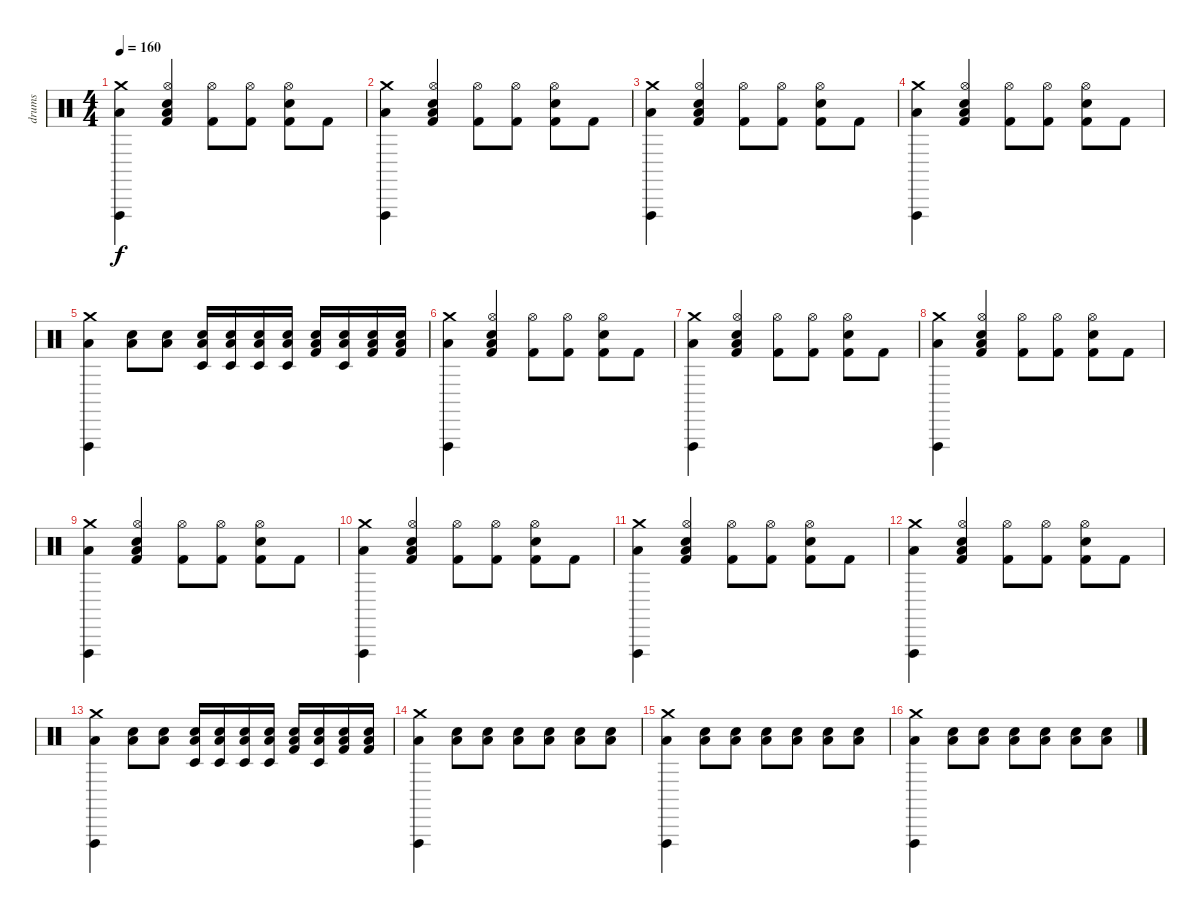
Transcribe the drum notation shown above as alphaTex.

\track ("drums" "drums") {instrument percussion}
\staff {score}
\articulation defaults
\ts (4 4)
\tempo 160
\clef neutral
\ks c
("Crash medium (hit)" "Vibraslap (hit)" "Low Floor Tom (hit)").4{dy f} ("Hi-Hat (open)" "Electric Snare (hit)" "Low Floor Tom (hit)" "Kick (hit) 2").4 ("Hi-Hat (open)" "Kick (hit) 2").8 ("Hi-Hat (open)" "Kick (hit) 2").8 ("Hi-Hat (open)" "Electric Snare (hit)" "Kick (hit) 2").8 "Kick (hit) 2".8 |
("Crash medium (hit)" "Vibraslap (hit)" "Low Floor Tom (hit)").4 ("Hi-Hat (open)" "Electric Snare (hit)" "Low Floor Tom (hit)" "Kick (hit) 2").4 ("Hi-Hat (open)" "Kick (hit) 2").8 ("Hi-Hat (open)" "Kick (hit) 2").8 ("Hi-Hat (open)" "Electric Snare (hit)" "Kick (hit) 2").8 "Kick (hit) 2".8 |
("Crash medium (hit)" "Vibraslap (hit)" "Low Floor Tom (hit)").4 ("Hi-Hat (open)" "Electric Snare (hit)" "Low Floor Tom (hit)" "Kick (hit) 2").4 ("Hi-Hat (open)" "Kick (hit) 2").8 ("Hi-Hat (open)" "Kick (hit) 2").8 ("Hi-Hat (open)" "Electric Snare (hit)" "Kick (hit) 2").8 "Kick (hit) 2".8 |
("Crash medium (hit)" "Vibraslap (hit)" "Low Floor Tom (hit)").4 ("Hi-Hat (open)" "Electric Snare (hit)" "Low Floor Tom (hit)" "Kick (hit) 2").4 ("Hi-Hat (open)" "Kick (hit) 2").8 ("Hi-Hat (open)" "Kick (hit) 2").8 ("Hi-Hat (open)" "Electric Snare (hit)" "Kick (hit) 2").8 "Kick (hit) 2".8 |
("Crash medium (hit)" "Vibraslap (hit)" "Low Floor Tom (hit)").4 ("Electric Snare (hit)" "Low Floor Tom (hit)").8 ("Electric Snare (hit)" "Low Floor Tom (hit)").8 ("Electric Snare (hit)" "Low Floor Tom (hit)" "Timbale low (hit)").16 ("Electric Snare (hit)" "Low Floor Tom (hit)" "Timbale low (hit)").16 ("Electric Snare (hit)" "Low Floor Tom (hit)" "Timbale low (hit)").16 ("Electric Snare (hit)" "Low Floor Tom (hit)" "Timbale low (hit)").16 ("Electric Snare (hit)" "Low Floor Tom (hit)" "Kick (hit) 2").16 ("Electric Snare (hit)" "Low Floor Tom (hit)" "Timbale low (hit)").16 ("Electric Snare (hit)" "Low Floor Tom (hit)" "Kick (hit) 2").16 ("Electric Snare (hit)" "Low Floor Tom (hit)" "Kick (hit) 2").16 |
("Crash medium (hit)" "Vibraslap (hit)" "Low Floor Tom (hit)").4 ("Hi-Hat (open)" "Electric Snare (hit)" "Low Floor Tom (hit)" "Kick (hit) 2").4 ("Hi-Hat (open)" "Kick (hit) 2").8 ("Hi-Hat (open)" "Kick (hit) 2").8 ("Hi-Hat (open)" "Electric Snare (hit)" "Kick (hit) 2").8 "Kick (hit) 2".8 |
("Crash medium (hit)" "Vibraslap (hit)" "Low Floor Tom (hit)").4 ("Hi-Hat (open)" "Electric Snare (hit)" "Low Floor Tom (hit)" "Kick (hit) 2").4 ("Hi-Hat (open)" "Kick (hit) 2").8 ("Hi-Hat (open)" "Kick (hit) 2").8 ("Hi-Hat (open)" "Electric Snare (hit)" "Kick (hit) 2").8 "Kick (hit) 2".8 |
("Crash medium (hit)" "Vibraslap (hit)" "Low Floor Tom (hit)").4 ("Hi-Hat (open)" "Electric Snare (hit)" "Low Floor Tom (hit)" "Kick (hit) 2").4 ("Hi-Hat (open)" "Kick (hit) 2").8 ("Hi-Hat (open)" "Kick (hit) 2").8 ("Hi-Hat (open)" "Electric Snare (hit)" "Kick (hit) 2").8 "Kick (hit) 2".8 |
("Crash medium (hit)" "Vibraslap (hit)" "Low Floor Tom (hit)").4 ("Hi-Hat (open)" "Electric Snare (hit)" "Low Floor Tom (hit)" "Kick (hit) 2").4 ("Hi-Hat (open)" "Kick (hit) 2").8 ("Hi-Hat (open)" "Kick (hit) 2").8 ("Hi-Hat (open)" "Electric Snare (hit)" "Kick (hit) 2").8 "Kick (hit) 2".8 |
("Crash medium (hit)" "Vibraslap (hit)" "Low Floor Tom (hit)").4 ("Hi-Hat (open)" "Electric Snare (hit)" "Low Floor Tom (hit)" "Kick (hit) 2").4 ("Hi-Hat (open)" "Kick (hit) 2").8 ("Hi-Hat (open)" "Kick (hit) 2").8 ("Hi-Hat (open)" "Electric Snare (hit)" "Kick (hit) 2").8 "Kick (hit) 2".8 |
("Crash medium (hit)" "Vibraslap (hit)" "Low Floor Tom (hit)").4 ("Hi-Hat (open)" "Electric Snare (hit)" "Low Floor Tom (hit)" "Kick (hit) 2").4 ("Hi-Hat (open)" "Kick (hit) 2").8 ("Hi-Hat (open)" "Kick (hit) 2").8 ("Hi-Hat (open)" "Electric Snare (hit)" "Kick (hit) 2").8 "Kick (hit) 2".8 |
("Crash medium (hit)" "Vibraslap (hit)" "Low Floor Tom (hit)").4 ("Hi-Hat (open)" "Electric Snare (hit)" "Low Floor Tom (hit)" "Kick (hit) 2").4 ("Hi-Hat (open)" "Kick (hit) 2").8 ("Hi-Hat (open)" "Kick (hit) 2").8 ("Hi-Hat (open)" "Electric Snare (hit)" "Kick (hit) 2").8 "Kick (hit) 2".8 |
("Crash medium (hit)" "Vibraslap (hit)" "Low Floor Tom (hit)").4 ("Electric Snare (hit)" "Low Floor Tom (hit)").8 ("Electric Snare (hit)" "Low Floor Tom (hit)").8 ("Electric Snare (hit)" "Low Floor Tom (hit)" "Timbale low (hit)").16 ("Electric Snare (hit)" "Low Floor Tom (hit)" "Timbale low (hit)").16 ("Electric Snare (hit)" "Low Floor Tom (hit)" "Timbale low (hit)").16 ("Electric Snare (hit)" "Low Floor Tom (hit)" "Timbale low (hit)").16 ("Electric Snare (hit)" "Low Floor Tom (hit)" "Kick (hit) 2").16 ("Electric Snare (hit)" "Low Floor Tom (hit)" "Timbale low (hit)").16 ("Electric Snare (hit)" "Low Floor Tom (hit)" "Kick (hit) 2").16 ("Electric Snare (hit)" "Low Floor Tom (hit)" "Kick (hit) 2").16 |
("Crash medium (hit)" "Vibraslap (hit)" "Low Floor Tom (hit)").4 ("Electric Snare (hit)" "Low Floor Tom (hit)").8 ("Electric Snare (hit)" "Low Floor Tom (hit)").8 ("Electric Snare (hit)" "Low Floor Tom (hit)").8 ("Electric Snare (hit)" "Low Floor Tom (hit)").8 ("Electric Snare (hit)" "Low Floor Tom (hit)").8 ("Electric Snare (hit)" "Low Floor Tom (hit)").8 |
("Crash medium (hit)" "Vibraslap (hit)" "Low Floor Tom (hit)").4 ("Electric Snare (hit)" "Low Floor Tom (hit)").8 ("Electric Snare (hit)" "Low Floor Tom (hit)").8 ("Electric Snare (hit)" "Low Floor Tom (hit)").8 ("Electric Snare (hit)" "Low Floor Tom (hit)").8 ("Electric Snare (hit)" "Low Floor Tom (hit)").8 ("Electric Snare (hit)" "Low Floor Tom (hit)").8 |
("Crash medium (hit)" "Vibraslap (hit)" "Low Floor Tom (hit)").4 ("Electric Snare (hit)" "Low Floor Tom (hit)").8 ("Electric Snare (hit)" "Low Floor Tom (hit)").8 ("Electric Snare (hit)" "Low Floor Tom (hit)").8 ("Electric Snare (hit)" "Low Floor Tom (hit)").8 ("Electric Snare (hit)" "Low Floor Tom (hit)").8 ("Electric Snare (hit)" "Low Floor Tom (hit)").8
